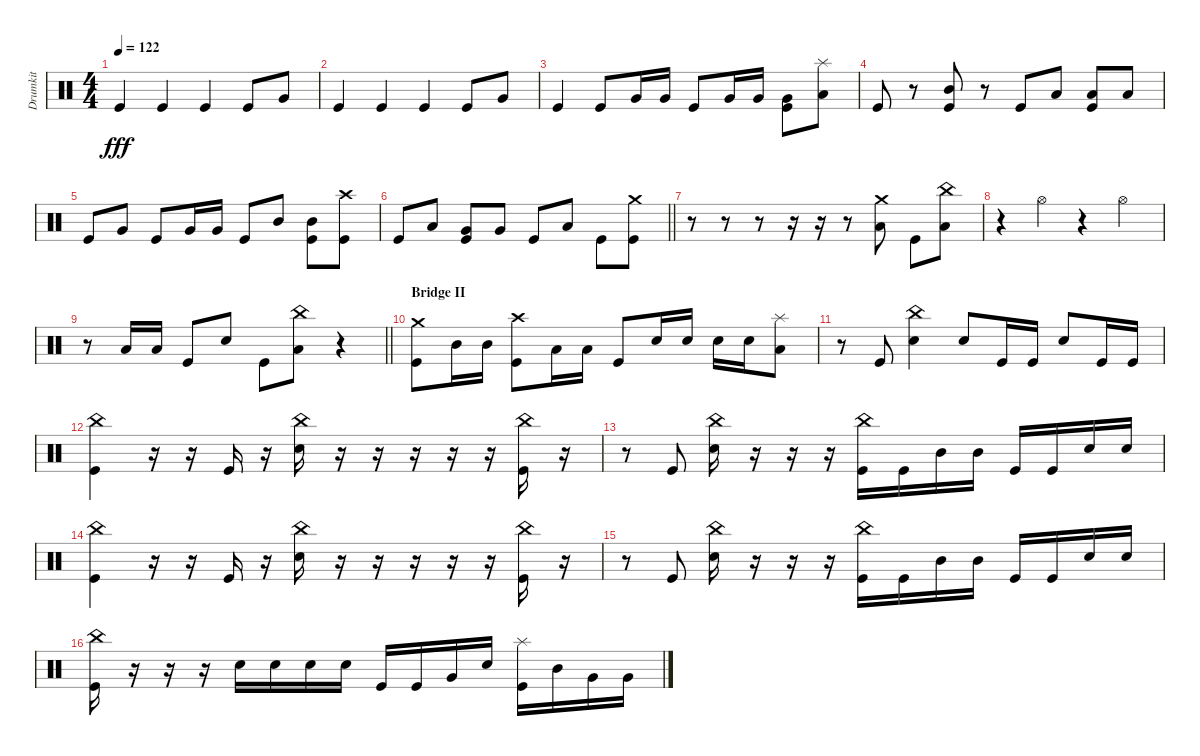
\track ("Drumkit" "Drumkit") {mute instrument percussion}
\staff {score}
\articulation defaults
\ts (4 4)
\tempo 122
\clef neutral
\ks c "Kick (hit)".4{dy fff} "Kick (hit)".4 "Kick (hit)".4 "Kick (hit)".8 "Very Low Tom (hit)".8
|
"Kick (hit)".4 "Kick (hit)".4 "Kick (hit)".4 "Kick (hit)".8 "Very Low Tom (hit)".8 |
"Kick (hit)".4 "Kick (hit)".8 "Very Low Tom (hit)".16 "Very Low Tom (hit)".16 "Kick (hit)".8 "Very Low Tom (hit)".16 "Very Low Tom (hit)".16 ("Kick (hit)" "Very Low Tom (hit)").8 ("Low Floor Tom (hit)" "Splash (hit)").8 |
"Kick (hit)".8 r.8 ("Kick (hit)" "Mid Tom (hit)").8 r.8 "Kick (hit)".8 "Low Tom (hit)".8 ("Kick (hit)" "Low Tom (hit)").8 "Low Floor Tom (hit)".8 |
"Kick (hit)".8 "Very Low Tom (hit)".8 "Kick (hit)".8 "Very Low Tom (hit)".16 "Very Low Tom (hit)".16 "Kick (hit)".8 "Mid Tom (hit)".8 ("Kick (hit)" "Mid Tom (hit)").8 ("Kick (hit)" "Crash high (hit)").8 |
\barLineRight lightlight "Kick (hit)".8 "Low Tom (hit)".8
("Kick (hit)" "Very Low Tom (hit)").8 "Very Low Tom (hit)".8 "Kick (hit)".8 "Low Tom (hit)".8 "Kick (hit)".8 ("Kick (hit)" "Crash medium (hit)").8 |
r.8 r.8 r.8 r.16 r.16 r.8 ("Low Tom (hit)" "Crash medium (hit)").8 "Kick (hit)".8 ("Low Floor Tom (hit)" "China (hit)").8 |
r.4 "Hi-Hat (open)".4 r.4 "Hi-Hat (open)".4 |
\barLineRight lightlight
r.8 "Low Tom (hit)".16 "Low Tom (hit)".16 "Kick (hit)".8 "Snare (hit) 2".8 "Kick (hit)".8 ("Low Tom (hit)" "China (hit)").8 r.4 |
\section ("" "Bridge II")
("Kick (hit)" "Crash medium (hit)").8 "Mid Tom (hit)".16 "Mid Tom (hit)".16 ("Kick (hit)" "Crash high (hit)").8 "Low Tom (hit)".16 "Low Tom (hit)".16 "Kick (hit)".8 "Snare (hit) 2".16 "Snare (hit) 2".16 "Snare (hit) 2".16 "Snare (hit) 2".16 ("Low Floor Tom (hit)" "Splash (hit)").8 |
r.8 "Kick (hit)".8 ("Snare (hit) 2" "China (hit)").4 "Snare (hit) 2".8 "Kick (hit)".16 "Kick (hit)".16 "Snare (hit) 2".8 "Kick (hit)".16 "Kick (hit)".16 |
("Kick (hit)" "China (hit)").4 r.16 r.16 "Kick (hit)".16 r.16 ("China (hit)" "Snare (hit) 2").16 r.16 r.16 r.16 r.16 r.16 ("Kick (hit)" "China (hit)").16 r.16 |
r.8 "Kick (hit)".8 ("Snare (hit) 2" "China (hit)").16 r.16 r.16 r.16 ("Kick (hit)" "China (hit)").16 "Kick (hit)".16 "Mid Tom (hit)".16 "Mid Tom (hit)".16 "Kick (hit)".16 "Kick (hit)".16 "Snare (hit) 2".16 "Snare (hit) 2".16 |
("Kick (hit)" "China (hit)").4 r.16 r.16 "Kick (hit)".16 r.16 ("China (hit)" "Snare (hit) 2").16 r.16 r.16 r.16 r.16 r.16 ("Kick (hit)" "China (hit)").16 r.16 |
r.8 "Kick (hit)".8 ("Snare (hit) 2" "China (hit)").16 r.16 r.16 r.16 ("Kick (hit)" "China (hit)").16 "Kick (hit)".16 "Mid Tom (hit)".16 "Mid Tom (hit)".16 "Kick (hit)".16 "Kick (hit)".16 "Snare (hit) 2".16 "Snare (hit) 2".16 |
("Kick (hit)" "China (hit)").16 r.16 r.16 r.16 "Snare (hit) 2".16 "Snare (hit) 2".16 "Snare (hit) 2".16 "Snare (hit) 2".16 "Kick (hit)".16 "Kick (hit)".16 "Very Low Tom (hit)".16 "Snare (hit) 2".16 ("Kick (hit)" "Splash (hit)").16 "Mid Tom (hit)".16 "Very Low Tom (hit)".16 "Very Low Tom (hit)".16
